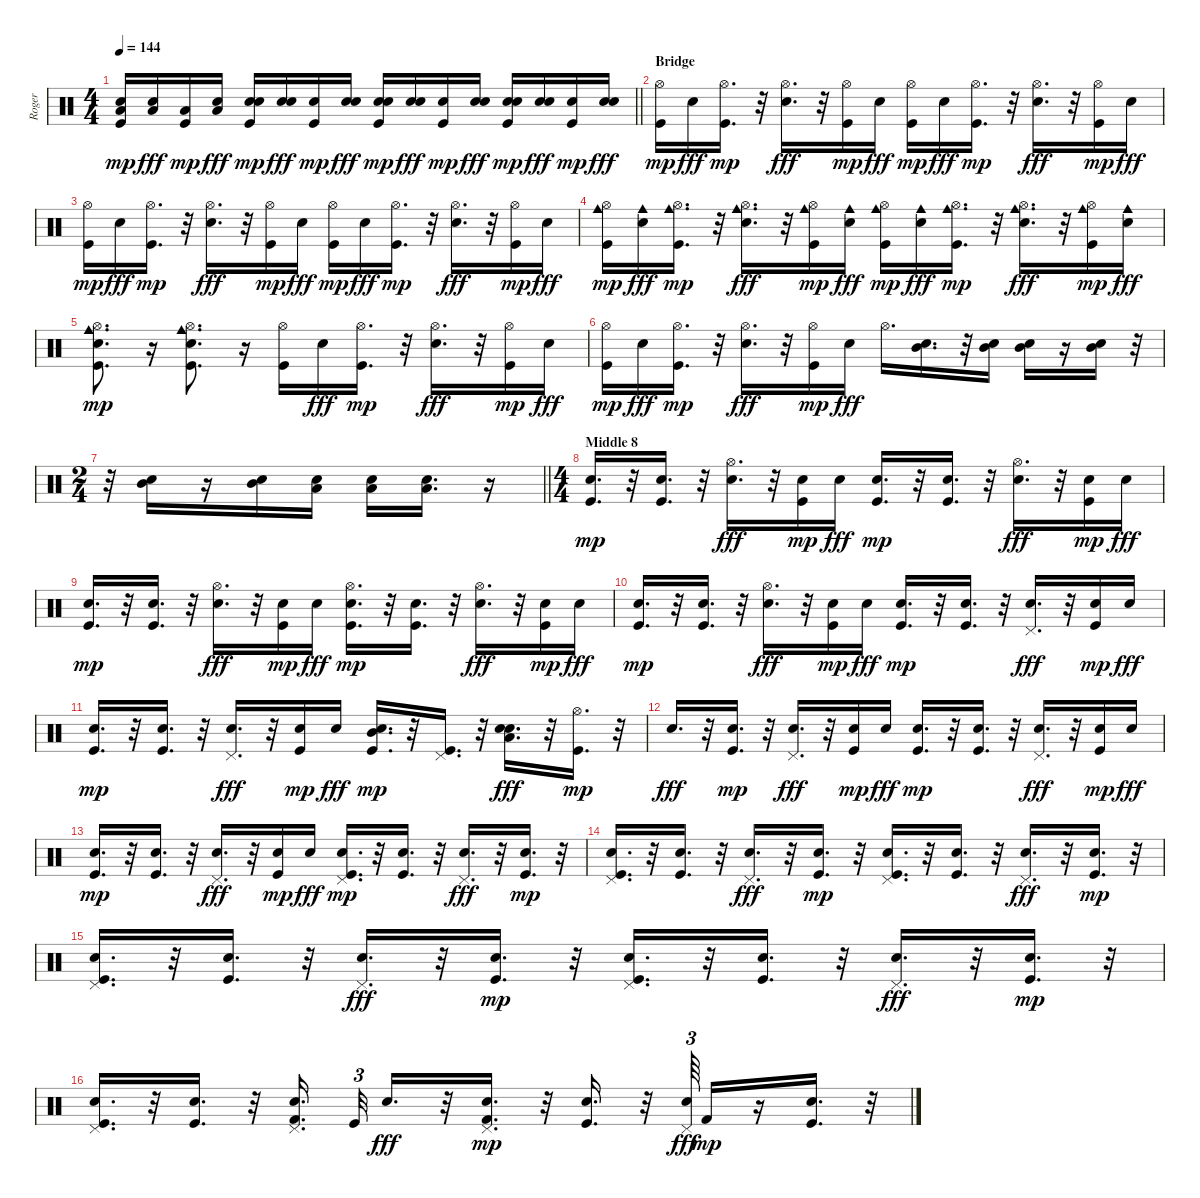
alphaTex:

\track ("Roger" "Roger") {instrument percussion}
\staff {score}
\articulation defaults
\ts (4 4)
\tempo 144
\clef neutral
\barLineRight lightlight
\ks c
("Low Tom (hit)" "Snare (hit) 2" "Kick (hit)").16{dy mp} ("Low Tom (hit)" "Snare (hit) 2").16{dy fff} ("Low Tom (hit)" "Kick (hit)").16{dy mp} ("Low Tom (hit)" "Snare (hit) 2").16{dy fff} ("Snare (hit) 2" "Electric Snare (hit)" "Kick (hit)").16{dy mp} ("Snare (hit) 2" "Electric Snare (hit)").16{dy fff} ("Electric Snare (hit)" "Kick (hit)").16{dy mp} ("Snare (hit) 2" "Electric Snare (hit)").16{dy fff} ("Snare (hit) 2" "Electric Snare (hit)" "Kick (hit)").16{dy mp} ("Snare (hit) 2" "Electric Snare (hit)").16{dy fff} ("Electric Snare (hit)" "Kick (hit)").16{dy mp} ("Snare (hit) 2" "Electric Snare (hit)").16{dy fff} ("Snare (hit) 2" "Hand Clap (hit)" "Kick (hit)").16{dy mp} ("Snare (hit) 2" "Hand Clap (hit)").16{dy fff} ("Hand Clap (hit)" "Kick (hit)").16{dy mp} ("Snare (hit) 2" "Hand Clap (hit)").16{dy fff} |
\section ("" "Bridge")
("Hi-Hat (open)" "Kick (hit)").16{dy mp} "Snare (hit) 2".16{dy fff} ("Hi-Hat (open)" "Kick (hit)").16{d dy mp} r.32 ("Snare (hit) 2" "Hi-Hat (open)").16{d dy fff} r.32 ("Hi-Hat (open)" "Kick (hit)").16{dy mp} "Snare (hit) 2".16{dy fff} ("Hi-Hat (open)" "Kick (hit)").16{dy mp} "Snare (hit) 2".16{dy fff} ("Hi-Hat (open)" "Kick (hit)").16{d dy mp} r.32 ("Snare (hit) 2" "Hi-Hat (open)").16{d dy fff} r.32 ("Hi-Hat (open)" "Kick (hit)").16{dy mp} "Snare (hit) 2".16{dy fff} |
("Hi-Hat (open)" "Kick (hit)").16{dy mp} "Snare (hit) 2".16{dy fff} ("Hi-Hat (open)" "Kick (hit)").16{d dy mp} r.32 ("Snare (hit) 2" "Hi-Hat (open)").16{d dy fff} r.32 ("Hi-Hat (open)" "Kick (hit)").16{dy mp} "Snare (hit) 2".16{dy fff} ("Hi-Hat (open)" "Kick (hit)").16{dy mp} "Snare (hit) 2".16{dy fff} ("Hi-Hat (open)" "Kick (hit)").16{d dy mp} r.32 ("Snare (hit) 2" "Hi-Hat (open)").16{d dy fff} r.32 ("Hi-Hat (open)" "Kick (hit)").16{dy mp} "Snare (hit) 2".16{dy fff} |
("Hi-Hat (open)" "Cowbell medium (hit)" "Kick (hit)").16{dy mp} ("Snare (hit) 2" "Cowbell medium (hit)").16{dy fff} ("Hi-Hat (open)" "Cowbell medium (hit)" "Kick (hit)").16{d dy mp} r.32 ("Snare (hit) 2" "Hi-Hat (open)" "Cowbell medium (hit)").16{d dy fff} r.32 ("Hi-Hat (open)" "Cowbell medium (hit)" "Kick (hit)").16{dy mp} ("Snare (hit) 2" "Cowbell medium (hit)").16{dy fff} ("Hi-Hat (open)" "Cowbell medium (hit)" "Kick (hit)").16{dy mp} ("Snare (hit) 2" "Cowbell medium (hit)").16{dy fff} ("Hi-Hat (open)" "Cowbell medium (hit)" "Kick (hit)").16{d dy mp} r.32 ("Snare (hit) 2" "Hi-Hat (open)" "Cowbell medium (hit)").16{d dy fff} r.32 ("Hi-Hat (open)" "Cowbell medium (hit)" "Kick (hit)").16{dy mp} ("Snare (hit) 2" "Cowbell medium (hit)").16{dy fff} |
("Snare (hit) 2" "Hi-Hat (open)" "Cowbell medium (hit)" "Kick (hit)").8{d dy mp} r.16 ("Snare (hit) 2" "Hi-Hat (open)" "Cowbell medium (hit)" "Kick (hit)").8{d} r.16 ("Hi-Hat (open)" "Kick (hit)").16 "Snare (hit) 2".16{dy fff} ("Hi-Hat (open)" "Kick (hit)").16{d dy mp} r.32 ("Snare (hit) 2" "Hi-Hat (open)").16{d dy fff} r.32 ("Hi-Hat (open)" "Kick (hit)").16{dy mp} "Snare (hit) 2".16{dy fff} |
("Hi-Hat (open)" "Kick (hit)").16{dy mp} "Snare (hit) 2".16{dy fff} ("Hi-Hat (open)" "Kick (hit)").16{d dy mp} r.32 ("Snare (hit) 2" "Hi-Hat (open)").16{d dy fff} r.32 ("Hi-Hat (open)" "Kick (hit)").16{dy mp} "Snare (hit) 2".16{dy fff} "Hi-Hat (open)".16{d} ("Mid Tom (hit)" "Snare (hit) 2").16{d} r.32 ("Mid Tom (hit)" "Snare (hit) 2").16 ("Mid Tom (hit)" "Snare (hit) 2").16 r.16 ("Mid Tom (hit)" "Snare (hit) 2").16 r.32 |
\ts (2 4)
\barLineRight lightlight
r.32 ("Mid Tom (hit)" "Snare (hit) 2").16 r.16 ("Mid Tom (hit)" "Snare (hit) 2").16 ("Low Tom (hit)" "Snare (hit) 2").16 ("Low Tom (hit)" "Snare (hit) 2").16 ("Low Tom (hit)" "Snare (hit) 2").16{d} r.16 |
\ts (4 4)
\section ("" "Middle 8")
("Electric Snare (hit)" "Kick (hit)").16{d dy mp} r.32 ("Electric Snare (hit)" "Kick (hit)").16{d} r.32 ("Snare (hit) 2" "Hi-Hat (open)").16{d dy fff} r.32 ("Electric Snare (hit)" "Kick (hit)").16{dy mp} "Snare (hit) 2".16{dy fff} ("Electric Snare (hit)" "Kick (hit)").16{d dy mp} r.32 ("Electric Snare (hit)" "Kick (hit)").16{d} r.32 ("Snare (hit) 2" "Hi-Hat (open)").16{d dy fff} r.32 ("Electric Snare (hit)" "Kick (hit)").16{dy mp} "Snare (hit) 2".16{dy fff} |
("Electric Snare (hit)" "Kick (hit)").16{d dy mp} r.32 ("Electric Snare (hit)" "Kick (hit)").16{d} r.32 ("Snare (hit) 2" "Hi-Hat (open)").16{d dy fff} r.32 ("Electric Snare (hit)" "Kick (hit)").16{dy mp} "Snare (hit) 2".16{dy fff} ("Snare (hit) 2" "Hi-Hat (open)" "Kick (hit)").16{d dy mp} r.32 ("Electric Snare (hit)" "Kick (hit)").16{d} r.32 ("Snare (hit) 2" "Hi-Hat (open)").16{d dy fff} r.32 ("Electric Snare (hit)" "Kick (hit)").16{dy mp} "Snare (hit) 2".16{dy fff} |
("Electric Snare (hit)" "Kick (hit)").16{d dy mp} r.32 ("Electric Snare (hit)" "Kick (hit)").16{d} r.32 ("Snare (hit) 2" "Hi-Hat (open)").16{d dy fff} r.32 ("Electric Snare (hit)" "Kick (hit)").16{dy mp} "Snare (hit) 2".16{dy fff} ("Electric Snare (hit)" "Kick (hit)").16{d dy mp} r.32 ("Electric Snare (hit)" "Kick (hit)").16{d} r.32 ("Snare (hit) 2" "Pedal Hi-Hat (hit)").16{d dy fff} r.32 ("Electric Snare (hit)" "Kick (hit)").16{dy mp} "Snare (hit) 2".16{dy fff} |
("Electric Snare (hit)" "Kick (hit)").16{d dy mp} r.32 ("Electric Snare (hit)" "Kick (hit)").16{d} r.32 ("Snare (hit) 2" "Pedal Hi-Hat (hit)").16{d dy fff} r.32 ("Electric Snare (hit)" "Kick (hit)").16{dy mp} "Snare (hit) 2".16{dy fff} ("Mid Tom (hit)" "Electric Snare (hit)" "Kick (hit)").16{d dy mp} r.32 ("Pedal Hi-Hat (hit)" "Kick (hit)").16{d} r.32 ("Snare (hit) 2" "Low Tom (hit)" "Electric Snare (hit)").16{d dy fff} r.32 ("Hi-Hat (open)" "Kick (hit)").16{d dy mp} r.32 |
"Electric Snare (hit)".16{d dy fff} r.32 ("Electric Snare (hit)" "Kick (hit)").16{d dy mp} r.32 ("Snare (hit) 2" "Pedal Hi-Hat (hit)").16{d dy fff} r.32 ("Electric Snare (hit)" "Kick (hit)").16{dy mp} "Snare (hit) 2".16{dy fff} ("Electric Snare (hit)" "Kick (hit)").16{d dy mp} r.32 ("Electric Snare (hit)" "Kick (hit)").16{d} r.32 ("Snare (hit) 2" "Pedal Hi-Hat (hit)").16{d dy fff} r.32 ("Electric Snare (hit)" "Kick (hit)").16{dy mp} "Snare (hit) 2".16{dy fff} |
("Electric Snare (hit)" "Kick (hit)").16{d dy mp} r.32 ("Electric Snare (hit)" "Kick (hit)").16{d} r.32 ("Snare (hit) 2" "Pedal Hi-Hat (hit)").16{d dy fff} r.32 ("Electric Snare (hit)" "Kick (hit)").16{dy mp} "Snare (hit) 2".16{dy fff} ("Snare (hit) 2" "Pedal Hi-Hat (hit)" "Kick (hit)").16{d dy mp} r.32 ("Electric Snare (hit)" "Kick (hit)").16{d} r.32 ("Snare (hit) 2" "Pedal Hi-Hat (hit)").16{d dy fff} r.32 ("Electric Snare (hit)" "Kick (hit)").16{d dy mp} r.32 |
("Snare (hit) 2" "Pedal Hi-Hat (hit)" "Kick (hit)").16{d} r.32 ("Electric Snare (hit)" "Kick (hit)").16{d} r.32 ("Snare (hit) 2" "Pedal Hi-Hat (hit)").16{d dy fff} r.32 ("Electric Snare (hit)" "Kick (hit)").16{d dy mp} r.32 ("Snare (hit) 2" "Pedal Hi-Hat (hit)" "Kick (hit)").16{d} r.32 ("Electric Snare (hit)" "Kick (hit)").16{d} r.32 ("Snare (hit) 2" "Pedal Hi-Hat (hit)").16{d dy fff} r.32 ("Electric Snare (hit)" "Kick (hit)").16{d dy mp} r.32 |
("Snare (hit) 2" "Pedal Hi-Hat (hit)" "Kick (hit)").16{d} r.32 ("Electric Snare (hit)" "Kick (hit)").16{d} r.32 ("Snare (hit) 2" "Pedal Hi-Hat (hit)").16{d dy fff} r.32 ("Electric Snare (hit)" "Kick (hit)").16{d dy mp} r.32 ("Snare (hit) 2" "Pedal Hi-Hat (hit)" "Kick (hit)").16{d} r.32 ("Electric Snare (hit)" "Kick (hit)").16{d} r.32 ("Snare (hit) 2" "Pedal Hi-Hat (hit)").16{d dy fff} r.32 ("Electric Snare (hit)" "Kick (hit)").16{d dy mp} r.32 |
("Snare (hit) 2" "Pedal Hi-Hat (hit)" "Kick (hit)").16{d} r.32 ("Electric Snare (hit)" "Kick (hit)").16{d} r.32 ("Snare (hit) 2" "Pedal Hi-Hat (hit)" "Kick (hit) 2").16{d beam splitsecondary} "Kick (hit)".32{tu (3 2)} "Electric Snare (hit)".16{d dy fff} r.32 ("Snare (hit) 2" "Pedal Hi-Hat (hit)" "Kick (hit) 2").16{d dy mp} r.32 ("Electric Snare (hit)" "Kick (hit)").16{d} r.32 ("Snare (hit) 2" "Pedal Hi-Hat (hit)").64{tu (3 2) dy fff} "Kick (hit) 2".16{dy mp} r.16 ("Electric Snare (hit)" "Kick (hit)").16{d} r.32
